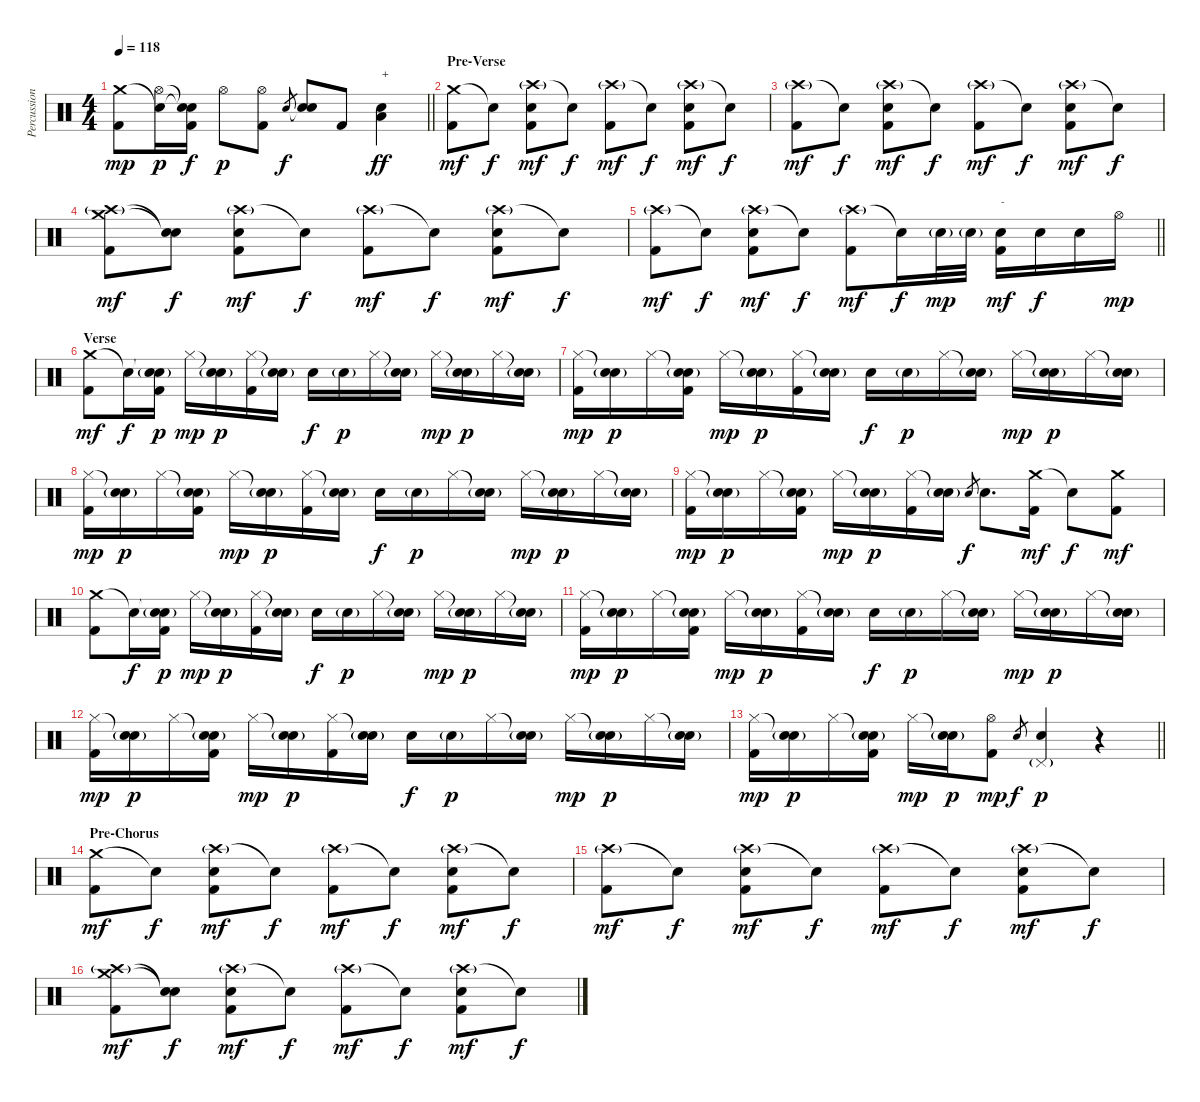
\track ("Percussions" "Percussion") {instrument percussion}
\staff {score}
\articulation defaults
\ts (4 4)
\tempo 118
\clef neutral
\barLineRight lightlight
\ks c
("Crash medium (hit)" "Kick (hit) 2").8{dy mp} ("Snare (hit)"{t} "Hi-Hat (open)").16{dy p} ("Snare (hit)"{t} "Snare (hit)"{t} "Kick (hit) 2").16{dy f} "Hi-Hat (open)".8{dy p} ("Hi-Hat (open)" "Kick (hit) 2").8 "Electric Snare (hit)".8{gr dy f} ("Snare (hit)"{t} "Electric Snare (hit)").8 "Kick (hit) 2".8 ("Low Floor Tom (hit)" "Electric Snare (hit)").4{txt "+" dy ff} |
\section ("" "Pre-Verse")
("Crash medium (hit)" "Kick (hit) 2").8{dy mf} "Snare (hit)"{t}.8{dy f} ("Crash high (hit)"{g} "Electric Snare (hit)" "Kick (hit) 2").8{dy mf} "Snare (hit)"{t}.8{dy f} ("Crash high (hit)"{g} "Kick (hit) 2").8{dy mf} "Snare (hit)"{t}.8{dy f} ("Crash high (hit)"{g} "Electric Snare (hit)" "Kick (hit) 2").8{dy mf} "Snare (hit)"{t}.8{dy f} |
("Crash high (hit)"{g} "Kick (hit) 2").8{dy mf} "Snare (hit)"{t}.8{dy f} ("Crash high (hit)"{g} "Electric Snare (hit)" "Kick (hit) 2").8{dy mf} "Snare (hit)"{t}.8{dy f} ("Crash high (hit)"{g} "Kick (hit) 2").8{dy mf} "Snare (hit)"{t}.8{dy f} ("Crash high (hit)"{g} "Electric Snare (hit)" "Kick (hit) 2").8{dy mf} "Snare (hit)"{t}.8{dy f} |
("Crash medium (hit)" "Crash high (hit)"{g} "Kick (hit) 2").8{dy mf} ("Snare (hit)"{t} "Snare (hit)"{t}).8{dy f} ("Crash high (hit)"{g} "Electric Snare (hit)" "Kick (hit) 2").8{dy mf} "Snare (hit)"{t}.8{dy f} ("Crash high (hit)"{g} "Kick (hit) 2").8{dy mf} "Snare (hit)"{t}.8{dy f} ("Crash high (hit)"{g} "Electric Snare (hit)" "Kick (hit) 2").8{dy mf} "Snare (hit)"{t}.8{dy f} |
\barLineRight lightlight
("Crash high (hit)"{g} "Kick (hit) 2").8{dy mf} "Snare (hit)"{t}.8{dy f} ("Crash high (hit)"{g} "Electric Snare (hit)" "Kick (hit) 2").8{dy mf} "Snare (hit)"{t}.8{dy f} ("Crash high (hit)"{g} "Kick (hit) 2").8{dy mf} "Snare (hit)"{t}.16{dy f} "Electric Snare (hit)"{g}.32{dy mp} "Electric Snare (hit)"{g}.32 ("Electric Snare (hit)" "Kick (hit) 2").16{txt "-" dy mf} "Electric Snare (hit)".16{dy f} "Electric Snare (hit)".16 "Hi-Hat (open)".16{dy mp} |
\section ("" "Verse")
("Crash medium (hit)" "Kick (hit) 2").8{dy mf} "Snare (hit)"{t}.16{dy f} ("Snare (hit)"{t} "Electric Snare (hit)"{g} "Kick (hit) 2").16{dy p} "Hi-Hat (closed)".16{dy mp} ("Snare (hit)"{t} "Electric Snare (hit)"{g}).16{dy p} ("Hi-Hat (closed)" "Kick (hit) 2").16 ("Snare (hit)"{t} "Electric Snare (hit)"{g}).16 "Electric Snare (hit)".16{dy f} "Electric Snare (hit)"{g}.16{dy p} "Hi-Hat (closed)".16 ("Snare (hit)"{t} "Electric Snare (hit)"{g}).16 "Hi-Hat (closed)".16{dy mp} ("Snare (hit)"{t} "Electric Snare (hit)"{g}).16{dy p} "Hi-Hat (closed)".16 ("Snare (hit)"{t} "Electric Snare (hit)"{g}).16 |
("Hi-Hat (closed)" "Kick (hit) 2").16{dy mp} ("Snare (hit)"{t} "Electric Snare (hit)"{g}).16{dy p} "Hi-Hat (closed)".16 ("Snare (hit)"{t} "Electric Snare (hit)"{g} "Kick (hit) 2").16 "Hi-Hat (closed)".16{dy mp} ("Snare (hit)"{t} "Electric Snare (hit)"{g}).16{dy p} ("Hi-Hat (closed)" "Kick (hit) 2").16 ("Snare (hit)"{t} "Electric Snare (hit)"{g}).16 "Electric Snare (hit)".16{dy f} "Electric Snare (hit)"{g}.16{dy p} "Hi-Hat (closed)".16 ("Snare (hit)"{t} "Electric Snare (hit)"{g}).16 "Hi-Hat (closed)".16{dy mp} ("Snare (hit)"{t} "Electric Snare (hit)"{g}).16{dy p} "Hi-Hat (closed)".16 ("Snare (hit)"{t} "Electric Snare (hit)"{g}).16 |
("Hi-Hat (closed)" "Kick (hit) 2").16{dy mp} ("Snare (hit)"{t} "Electric Snare (hit)"{g}).16{dy p} "Hi-Hat (closed)".16 ("Snare (hit)"{t} "Electric Snare (hit)"{g} "Kick (hit) 2").16 "Hi-Hat (closed)".16{dy mp} ("Snare (hit)"{t} "Electric Snare (hit)"{g}).16{dy p} ("Hi-Hat (closed)" "Kick (hit) 2").16 ("Snare (hit)"{t} "Electric Snare (hit)"{g}).16 "Electric Snare (hit)".16{dy f} "Electric Snare (hit)"{g}.16{dy p} "Hi-Hat (closed)".16 ("Snare (hit)"{t} "Electric Snare (hit)"{g}).16 "Hi-Hat (closed)".16{dy mp} ("Snare (hit)"{t} "Electric Snare (hit)"{g}).16{dy p} "Hi-Hat (closed)".16 ("Snare (hit)"{t} "Electric Snare (hit)"{g}).16 |
("Hi-Hat (closed)" "Kick (hit) 2").16{dy mp} ("Snare (hit)"{t} "Electric Snare (hit)"{g}).16{dy p} "Hi-Hat (closed)".16 ("Snare (hit)"{t} "Electric Snare (hit)"{g} "Kick (hit) 2").16 "Hi-Hat (closed)".16{dy mp} ("Snare (hit)"{t} "Electric Snare (hit)"{g}).16{dy p} ("Hi-Hat (closed)" "Kick (hit) 2").16 ("Snare (hit)"{t} "Electric Snare (hit)"{g}).16 "Electric Snare (hit)".8{gr dy f} "Electric Snare (hit)".8{d} ("Crash medium (hit)" "Kick (hit) 2").16{dy mf} "Snare (hit)"{t}.8{dy f} ("Crash medium (hit)" "Kick (hit) 2").8{dy mf} |
("Crash medium (hit)" "Kick (hit) 2").8 "Snare (hit)"{t}.16{dy f} ("Snare (hit)"{t} "Electric Snare (hit)"{g} "Kick (hit) 2").16{dy p} "Hi-Hat (closed)".16{dy mp} ("Snare (hit)"{t} "Electric Snare (hit)"{g}).16{dy p} ("Hi-Hat (closed)" "Kick (hit) 2").16 ("Snare (hit)"{t} "Electric Snare (hit)"{g}).16 "Electric Snare (hit)".16{dy f} "Electric Snare (hit)"{g}.16{dy p} "Hi-Hat (closed)".16 ("Snare (hit)"{t} "Electric Snare (hit)"{g}).16 "Hi-Hat (closed)".16{dy mp} ("Snare (hit)"{t} "Electric Snare (hit)"{g}).16{dy p} "Hi-Hat (closed)".16 ("Snare (hit)"{t} "Electric Snare (hit)"{g}).16 |
("Hi-Hat (closed)" "Kick (hit) 2").16{dy mp} ("Snare (hit)"{t} "Electric Snare (hit)"{g}).16{dy p} "Hi-Hat (closed)".16 ("Snare (hit)"{t} "Electric Snare (hit)"{g} "Kick (hit) 2").16 "Hi-Hat (closed)".16{dy mp} ("Snare (hit)"{t} "Electric Snare (hit)"{g}).16{dy p} ("Hi-Hat (closed)" "Kick (hit) 2").16 ("Snare (hit)"{t} "Electric Snare (hit)"{g}).16 "Electric Snare (hit)".16{dy f} "Electric Snare (hit)"{g}.16{dy p} "Hi-Hat (closed)".16 ("Snare (hit)"{t} "Electric Snare (hit)"{g}).16 "Hi-Hat (closed)".16{dy mp} ("Snare (hit)"{t} "Electric Snare (hit)"{g}).16{dy p} "Hi-Hat (closed)".16 ("Snare (hit)"{t} "Electric Snare (hit)"{g}).16 |
("Hi-Hat (closed)" "Kick (hit) 2").16{dy mp} ("Snare (hit)"{t} "Electric Snare (hit)"{g}).16{dy p} "Hi-Hat (closed)".16 ("Snare (hit)"{t} "Electric Snare (hit)"{g} "Kick (hit) 2").16 "Hi-Hat (closed)".16{dy mp} ("Snare (hit)"{t} "Electric Snare (hit)"{g}).16{dy p} ("Hi-Hat (closed)" "Kick (hit) 2").16 ("Snare (hit)"{t} "Electric Snare (hit)"{g}).16 "Electric Snare (hit)".16{dy f} "Electric Snare (hit)"{g}.16{dy p} "Hi-Hat (closed)".16 ("Snare (hit)"{t} "Electric Snare (hit)"{g}).16 "Hi-Hat (closed)".16{dy mp} ("Snare (hit)"{t} "Electric Snare (hit)"{g}).16{dy p} "Hi-Hat (closed)".16 ("Snare (hit)"{t} "Electric Snare (hit)"{g}).16 |
\barLineRight lightlight
("Hi-Hat (closed)" "Kick (hit) 2").16{dy mp} ("Snare (hit)"{t} "Electric Snare (hit)"{g}).16{dy p} "Hi-Hat (closed)".16 ("Snare (hit)"{t} "Electric Snare (hit)"{g} "Kick (hit) 2").16 "Hi-Hat (closed)".16{dy mp} ("Snare (hit)"{t} "Electric Snare (hit)"{g}).16{dy p} ("Hi-Hat (open)" "Kick (hit) 2").8{dy mp} "Electric Snare (hit)".8{gr dy f} ("Pedal Hi-Hat (hit)"{g} "Electric Snare (hit)").4{dy p} r.4 |
\section ("" "Pre-Chorus")
("Crash medium (hit)" "Kick (hit) 2").8{dy mf} "Snare (hit)"{t}.8{dy f} ("Crash high (hit)"{g} "Electric Snare (hit)" "Kick (hit) 2").8{dy mf} "Snare (hit)"{t}.8{dy f} ("Crash high (hit)"{g} "Kick (hit) 2").8{dy mf} "Snare (hit)"{t}.8{dy f} ("Crash high (hit)"{g} "Electric Snare (hit)" "Kick (hit) 2").8{dy mf} "Snare (hit)"{t}.8{dy f} |
("Crash high (hit)"{g} "Kick (hit) 2").8{dy mf} "Snare (hit)"{t}.8{dy f} ("Crash high (hit)"{g} "Electric Snare (hit)" "Kick (hit) 2").8{dy mf} "Snare (hit)"{t}.8{dy f} ("Crash high (hit)"{g} "Kick (hit) 2").8{dy mf} "Snare (hit)"{t}.8{dy f} ("Crash high (hit)"{g} "Electric Snare (hit)" "Kick (hit) 2").8{dy mf} "Snare (hit)"{t}.8{dy f} |
("Crash medium (hit)" "Crash high (hit)"{g} "Kick (hit) 2").8{dy mf} ("Snare (hit)"{t} "Snare (hit)"{t}).8{dy f} ("Crash high (hit)"{g} "Electric Snare (hit)" "Kick (hit) 2").8{dy mf} "Snare (hit)"{t}.8{dy f} ("Crash high (hit)"{g} "Kick (hit) 2").8{dy mf} "Snare (hit)"{t}.8{dy f} ("Crash high (hit)"{g} "Electric Snare (hit)" "Kick (hit) 2").8{dy mf} "Snare (hit)"{t}.8{dy f}
